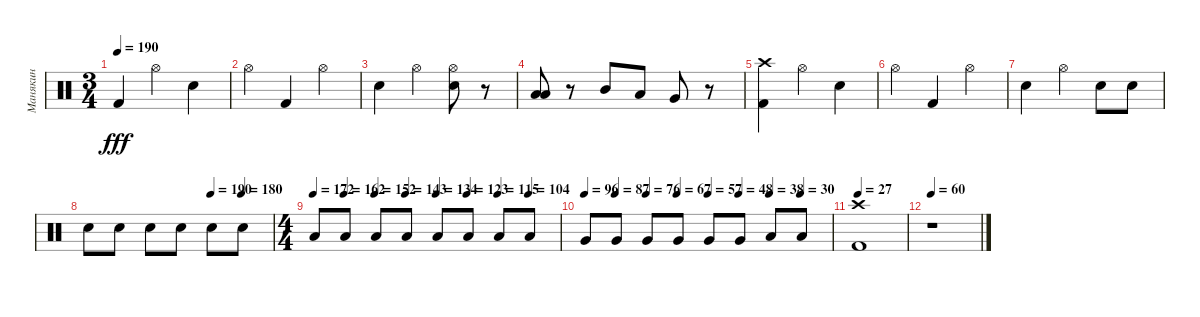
\track ("Манякин" "Манякин") {instrument percussion}
\staff {score}
\articulation defaults
\ts (3 4)
\tempo 190
\clef neutral
\ks c "Kick (hit) 2".4{dy fff} "Hi-Hat (open)".4 "Snare (hit) 2".4
|
"Hi-Hat (open)".4 "Kick (hit) 2".4 "Hi-Hat (open)".4 |
"Snare (hit) 2".4 "Hi-Hat (open)".4 ("Hi-Hat (open)" "Snare (hit) 2").8 r.8 |
("Low Tom (hit)" "Low Floor Tom (hit)").8 r.8 "Mid Tom (hit)".8 "Low Tom (hit)".8 "Very Low Tom (hit)".8 r.8 |
("Kick (hit) 2" "Crash high (hit)").4 "Hi-Hat (open)".4 "Snare (hit) 2".4 |
"Hi-Hat (open)".4 "Kick (hit) 2".4 "Hi-Hat (open)".4 |
"Snare (hit) 2".4 "Hi-Hat (open)".4 "Snare (hit) 2".8 "Snare (hit) 2".8 |
\tempo (190 0.6666666666666666)
\tempo (180 0.8333333333333334)
"Snare (hit) 2".8 "Snare (hit) 2".8 "Snare (hit) 2".8 "Snare (hit) 2".8 "Snare (hit) 2".8 "Snare (hit) 2".8 |
\ts (4 4)
\tempo 172
\tempo (162 0.125)
\tempo (152 0.25)
\tempo (143 0.375)
\tempo (134 0.5)
\tempo (123 0.625)
\tempo (115 0.75)
\tempo (104 0.875)
"Low Tom (hit)".8 "Low Tom (hit)".8 "Low Tom (hit)".8 "Low Tom (hit)".8 "Low Tom (hit)".8 "Low Tom (hit)".8 "Low Tom (hit)".8 "Low Tom (hit)".8 |
\tempo 96
\tempo (87 0.125)
\tempo (76 0.25)
\tempo (67 0.375)
\tempo (57 0.5)
\tempo (48 0.625)
\tempo (38 0.75)
\tempo (30 0.875)
"Very Low Tom (hit)".8 "Very Low Tom (hit)".8 "Very Low Tom (hit)".8 "Very Low Tom (hit)".8 "Very Low Tom (hit)".8 "Very Low Tom (hit)".8 "Low Floor Tom (hit)".8 "Low Floor Tom (hit)".8 |
\tempo 27
("Crash high (hit)" "Kick (hit) 2").1 |
\tempo 60
r.1
